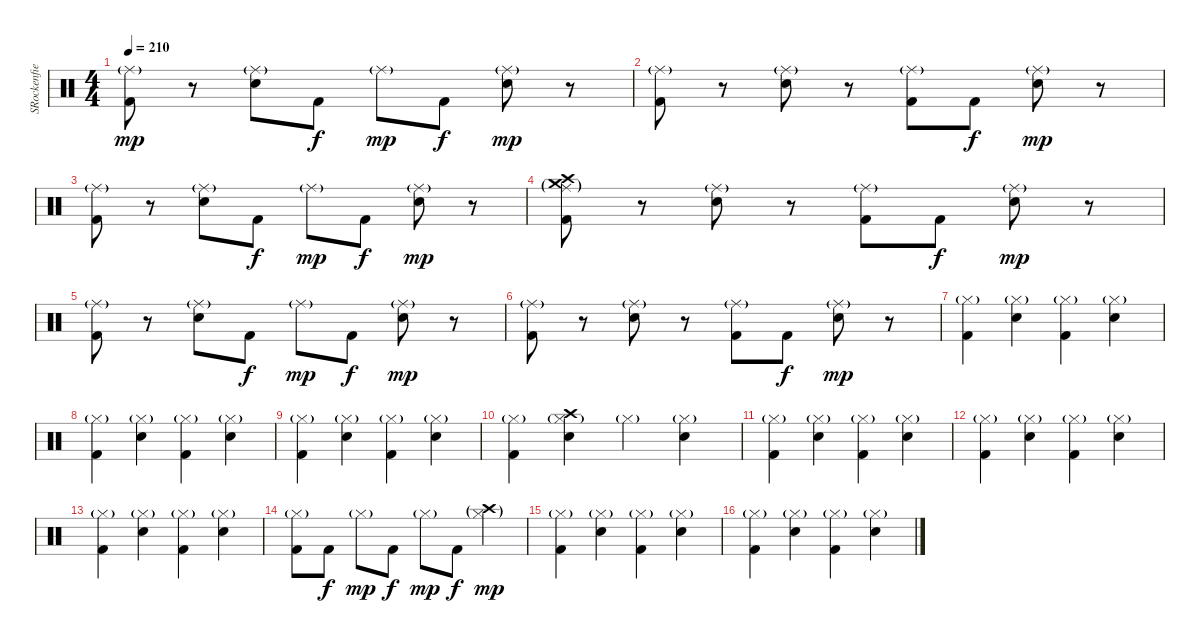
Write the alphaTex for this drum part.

\track ("SRockenfield" "SRockenfie") {instrument percussion}
\staff {score}
\articulation defaults
\ts (4 4)
\tempo 210
\clef neutral
\ks c
("Ride (middle)"{g} "Kick (hit) 2").8{dy mp} r.8 ("Ride (middle)"{g} "Electric Snare (hit)").8 "Kick (hit) 2".8{dy f} "Ride (middle)"{g}.8{dy mp} "Kick (hit) 2".8{dy f} ("Ride (middle)"{g} "Electric Snare (hit)").8{dy mp} r.8 |
("Ride (middle)"{g} "Kick (hit) 2").8 r.8 ("Ride (middle)"{g} "Electric Snare (hit)").8 r.8 ("Ride (middle)"{g} "Kick (hit) 2").8 "Kick (hit) 2".8{dy f} ("Ride (middle)"{g} "Electric Snare (hit)").8{dy mp} r.8 |
("Ride (middle)"{g} "Kick (hit) 2").8 r.8 ("Ride (middle)"{g} "Electric Snare (hit)").8 "Kick (hit) 2".8{dy f} "Ride (middle)"{g}.8{dy mp} "Kick (hit) 2".8{dy f} ("Ride (middle)"{g} "Electric Snare (hit)").8{dy mp} r.8 |
("Ride (middle)"{g} "Crash medium (hit)"{g} "Crash high (hit)" "Kick (hit) 2").8 r.8 ("Ride (middle)"{g} "Electric Snare (hit)").8 r.8 ("Ride (middle)"{g} "Kick (hit) 2").8 "Kick (hit) 2".8{dy f} ("Ride (middle)"{g} "Electric Snare (hit)").8{dy mp} r.8 |
("Ride (middle)"{g} "Kick (hit) 2").8 r.8 ("Ride (middle)"{g} "Electric Snare (hit)").8 "Kick (hit) 2".8{dy f} "Ride (middle)"{g}.8{dy mp} "Kick (hit) 2".8{dy f} ("Ride (middle)"{g} "Electric Snare (hit)").8{dy mp} r.8 |
("Ride (middle)"{g} "Kick (hit) 2").8 r.8 ("Ride (middle)"{g} "Electric Snare (hit)").8 r.8 ("Ride (middle)"{g} "Kick (hit) 2").8 "Kick (hit) 2".8{dy f} ("Ride (middle)"{g} "Electric Snare (hit)").8{dy mp} r.8 |
("Hi-Hat (closed)"{g} "Kick (hit) 2").4 ("Hi-Hat (closed)"{g} "Electric Snare (hit)").4 ("Hi-Hat (closed)"{g} "Kick (hit) 2").4 ("Hi-Hat (closed)"{g} "Electric Snare (hit)").4 |
("Hi-Hat (closed)"{g} "Kick (hit) 2").4 ("Hi-Hat (closed)"{g} "Electric Snare (hit)").4 ("Hi-Hat (closed)"{g} "Kick (hit) 2").4 ("Hi-Hat (closed)"{g} "Electric Snare (hit)").4 |
("Hi-Hat (closed)"{g} "Kick (hit) 2").4 ("Hi-Hat (closed)"{g} "Electric Snare (hit)").4 ("Hi-Hat (closed)"{g} "Kick (hit) 2").4 ("Hi-Hat (closed)"{g} "Electric Snare (hit)").4 |
("Hi-Hat (closed)"{g} "Kick (hit) 2").4 ("Hi-Hat (closed)"{g} "Crash high (hit)" "Electric Snare (hit)").4 "Hi-Hat (closed)"{g}.4 ("Hi-Hat (closed)"{g} "Electric Snare (hit)").4 |
("Hi-Hat (closed)"{g} "Kick (hit) 2").4 ("Hi-Hat (closed)"{g} "Electric Snare (hit)").4 ("Hi-Hat (closed)"{g} "Kick (hit) 2").4 ("Hi-Hat (closed)"{g} "Electric Snare (hit)").4 |
("Hi-Hat (closed)"{g} "Kick (hit) 2").4 ("Hi-Hat (closed)"{g} "Electric Snare (hit)").4 ("Hi-Hat (closed)"{g} "Kick (hit) 2").4 ("Hi-Hat (closed)"{g} "Electric Snare (hit)").4 |
("Hi-Hat (closed)"{g} "Kick (hit) 2").4 ("Hi-Hat (closed)"{g} "Electric Snare (hit)").4 ("Hi-Hat (closed)"{g} "Kick (hit) 2").4 ("Hi-Hat (closed)"{g} "Electric Snare (hit)").4 |
("Hi-Hat (closed)"{g} "Kick (hit) 2").8 "Kick (hit) 2".8{dy f} "Hi-Hat (closed)"{g}.8{dy mp} "Kick (hit) 2".8{dy f} "Hi-Hat (closed)"{g}.8{dy mp} "Kick (hit) 2".8{dy f} ("Hi-Hat (closed)"{g} "Crash high (hit)"{g}).4{dy mp} |
("Hi-Hat (closed)"{g} "Kick (hit) 2").4 ("Hi-Hat (closed)"{g} "Electric Snare (hit)").4 ("Hi-Hat (closed)"{g} "Kick (hit) 2").4 ("Hi-Hat (closed)"{g} "Electric Snare (hit)").4 |
("Hi-Hat (closed)"{g} "Kick (hit) 2").4 ("Hi-Hat (closed)"{g} "Electric Snare (hit)").4 ("Hi-Hat (closed)"{g} "Kick (hit) 2").4 ("Hi-Hat (closed)"{g} "Electric Snare (hit)").4
